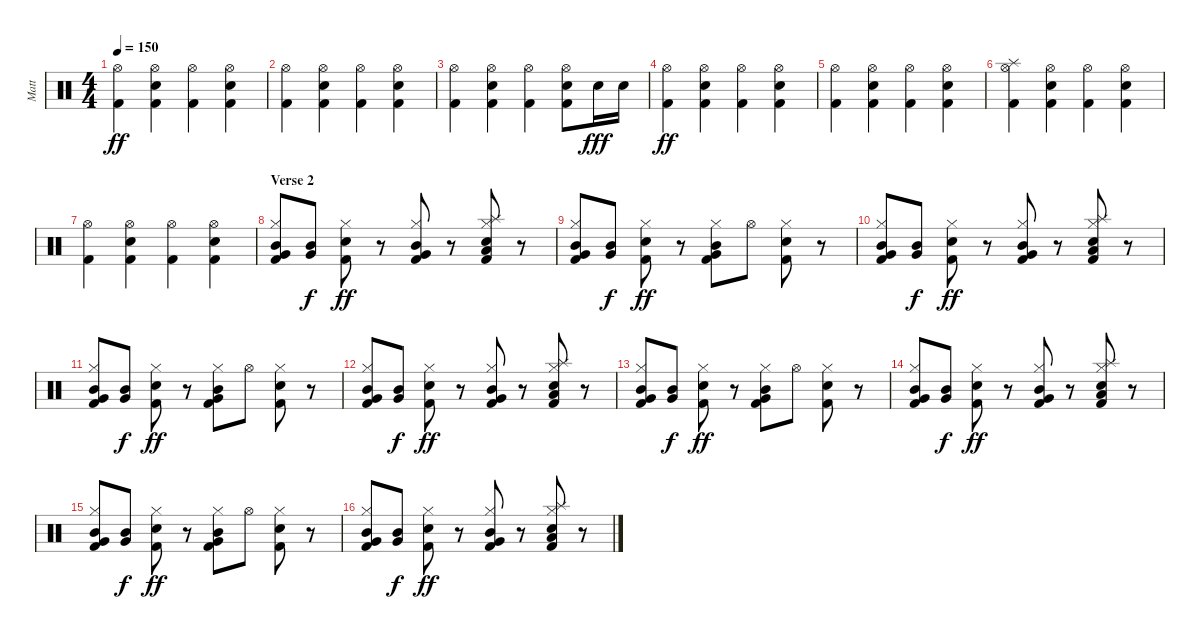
\track ("Matt" "Matt") {instrument percussion}
\staff {score}
\articulation defaults
\ts (4 4)
\tempo 150
\clef neutral
\ks c
("Hi-Hat (open)" "Kick (hit) 2").4{dy ff} ("Hi-Hat (open)" "Electric Snare (hit)" "Kick (hit) 2").4 ("Hi-Hat (open)" "Kick (hit) 2").4 ("Hi-Hat (open)" "Electric Snare (hit)" "Kick (hit) 2").4 |
("Hi-Hat (open)" "Kick (hit) 2").4 ("Hi-Hat (open)" "Electric Snare (hit)" "Kick (hit) 2").4 ("Hi-Hat (open)" "Kick (hit) 2").4 ("Hi-Hat (open)" "Electric Snare (hit)" "Kick (hit) 2").4 |
("Hi-Hat (open)" "Kick (hit) 2").4 ("Hi-Hat (open)" "Electric Snare (hit)" "Kick (hit) 2").4 ("Hi-Hat (open)" "Kick (hit) 2").4 ("Hi-Hat (open)" "Electric Snare (hit)" "Kick (hit) 2").8 "Electric Snare (hit)".16{dy fff} "Electric Snare (hit)".16 |
("Hi-Hat (open)" "Kick (hit) 2").4{dy ff} ("Hi-Hat (open)" "Electric Snare (hit)" "Kick (hit) 2").4 ("Hi-Hat (open)" "Kick (hit) 2").4 ("Hi-Hat (open)" "Electric Snare (hit)" "Kick (hit) 2").4 |
("Hi-Hat (open)" "Kick (hit) 2").4 ("Hi-Hat (open)" "Electric Snare (hit)" "Kick (hit) 2").4 ("Hi-Hat (open)" "Kick (hit) 2").4 ("Hi-Hat (open)" "Electric Snare (hit)" "Kick (hit) 2").4 |
("Splash (hit)" "Hi-Hat (open)" "Kick (hit) 2").4 ("Hi-Hat (open)" "Electric Snare (hit)" "Kick (hit) 2").4 ("Hi-Hat (open)" "Kick (hit) 2").4 ("Hi-Hat (open)" "Electric Snare (hit)" "Kick (hit) 2").4 |
("Hi-Hat (open)" "Kick (hit) 2").4 ("Hi-Hat (open)" "Electric Snare (hit)" "Kick (hit) 2").4 ("Hi-Hat (open)" "Kick (hit) 2").4 ("Hi-Hat (open)" "Electric Snare (hit)" "Kick (hit) 2").4 |
\section ("" "Verse 2")
("Hi-Hat (closed)" "Mid Tom (hit)" "Very Low Tom (hit)" "Kick (hit) 2").8 ("Mid Tom (hit)" "Very Low Tom (hit)").8{dy f} ("Hi-Hat (closed)" "Electric Snare (hit)" "Kick (hit) 2").8{dy ff} r.8 ("Hi-Hat (closed)" "Mid Tom (hit)" "Very Low Tom (hit)" "Kick (hit) 2").8 r.8 ("Low Floor Tom (hit)" "Splash (hit)" "Hi-Hat (closed)" "Electric Snare (hit)" "Kick (hit) 2").8 r.8 |
("Hi-Hat (closed)" "Mid Tom (hit)" "Very Low Tom (hit)" "Kick (hit) 2").8 ("Mid Tom (hit)" "Very Low Tom (hit)").8{dy f} ("Hi-Hat (closed)" "Electric Snare (hit)" "Kick (hit) 2").8{dy ff} r.8 ("Hi-Hat (closed)" "Mid Tom (hit)" "Very Low Tom (hit)" "Kick (hit) 2").8 "Hi-Hat (open)".8 ("Hi-Hat (closed)" "Electric Snare (hit)" "Kick (hit) 2").8 r.8 |
("Hi-Hat (closed)" "Mid Tom (hit)" "Very Low Tom (hit)" "Kick (hit) 2").8 ("Mid Tom (hit)" "Very Low Tom (hit)").8{dy f} ("Hi-Hat (closed)" "Electric Snare (hit)" "Kick (hit) 2").8{dy ff} r.8 ("Hi-Hat (closed)" "Mid Tom (hit)" "Very Low Tom (hit)" "Kick (hit) 2").8 r.8 ("Low Floor Tom (hit)" "Splash (hit)" "Hi-Hat (closed)" "Electric Snare (hit)" "Kick (hit) 2").8 r.8 |
("Hi-Hat (closed)" "Mid Tom (hit)" "Very Low Tom (hit)" "Kick (hit) 2").8 ("Mid Tom (hit)" "Very Low Tom (hit)").8{dy f} ("Hi-Hat (closed)" "Electric Snare (hit)" "Kick (hit) 2").8{dy ff} r.8 ("Hi-Hat (closed)" "Mid Tom (hit)" "Very Low Tom (hit)" "Kick (hit) 2").8 "Hi-Hat (open)".8 ("Hi-Hat (closed)" "Electric Snare (hit)" "Kick (hit) 2").8 r.8 |
("Hi-Hat (closed)" "Mid Tom (hit)" "Very Low Tom (hit)" "Kick (hit) 2").8 ("Mid Tom (hit)" "Very Low Tom (hit)").8{dy f} ("Hi-Hat (closed)" "Electric Snare (hit)" "Kick (hit) 2").8{dy ff} r.8 ("Hi-Hat (closed)" "Mid Tom (hit)" "Very Low Tom (hit)" "Kick (hit) 2").8 r.8 ("Low Floor Tom (hit)" "Splash (hit)" "Hi-Hat (closed)" "Electric Snare (hit)" "Kick (hit) 2").8 r.8 |
("Hi-Hat (closed)" "Mid Tom (hit)" "Very Low Tom (hit)" "Kick (hit) 2").8 ("Mid Tom (hit)" "Very Low Tom (hit)").8{dy f} ("Hi-Hat (closed)" "Electric Snare (hit)" "Kick (hit) 2").8{dy ff} r.8 ("Hi-Hat (closed)" "Mid Tom (hit)" "Very Low Tom (hit)" "Kick (hit) 2").8 "Hi-Hat (open)".8 ("Hi-Hat (closed)" "Electric Snare (hit)" "Kick (hit) 2").8 r.8 |
("Hi-Hat (closed)" "Mid Tom (hit)" "Very Low Tom (hit)" "Kick (hit) 2").8 ("Mid Tom (hit)" "Very Low Tom (hit)").8{dy f} ("Hi-Hat (closed)" "Electric Snare (hit)" "Kick (hit) 2").8{dy ff} r.8 ("Hi-Hat (closed)" "Mid Tom (hit)" "Very Low Tom (hit)" "Kick (hit) 2").8 r.8 ("Low Floor Tom (hit)" "Splash (hit)" "Hi-Hat (closed)" "Electric Snare (hit)" "Kick (hit) 2").8 r.8 |
("Hi-Hat (closed)" "Mid Tom (hit)" "Very Low Tom (hit)" "Kick (hit) 2").8 ("Mid Tom (hit)" "Very Low Tom (hit)").8{dy f} ("Hi-Hat (closed)" "Electric Snare (hit)" "Kick (hit) 2").8{dy ff} r.8 ("Hi-Hat (closed)" "Mid Tom (hit)" "Very Low Tom (hit)" "Kick (hit) 2").8 "Hi-Hat (open)".8 ("Hi-Hat (closed)" "Electric Snare (hit)" "Kick (hit) 2").8 r.8 |
("Hi-Hat (closed)" "Mid Tom (hit)" "Very Low Tom (hit)" "Kick (hit) 2").8 ("Mid Tom (hit)" "Very Low Tom (hit)").8{dy f} ("Hi-Hat (closed)" "Electric Snare (hit)" "Kick (hit) 2").8{dy ff} r.8 ("Hi-Hat (closed)" "Mid Tom (hit)" "Very Low Tom (hit)" "Kick (hit) 2").8 r.8 ("Low Floor Tom (hit)" "Splash (hit)" "Hi-Hat (closed)" "Electric Snare (hit)" "Kick (hit) 2").8 r.8
